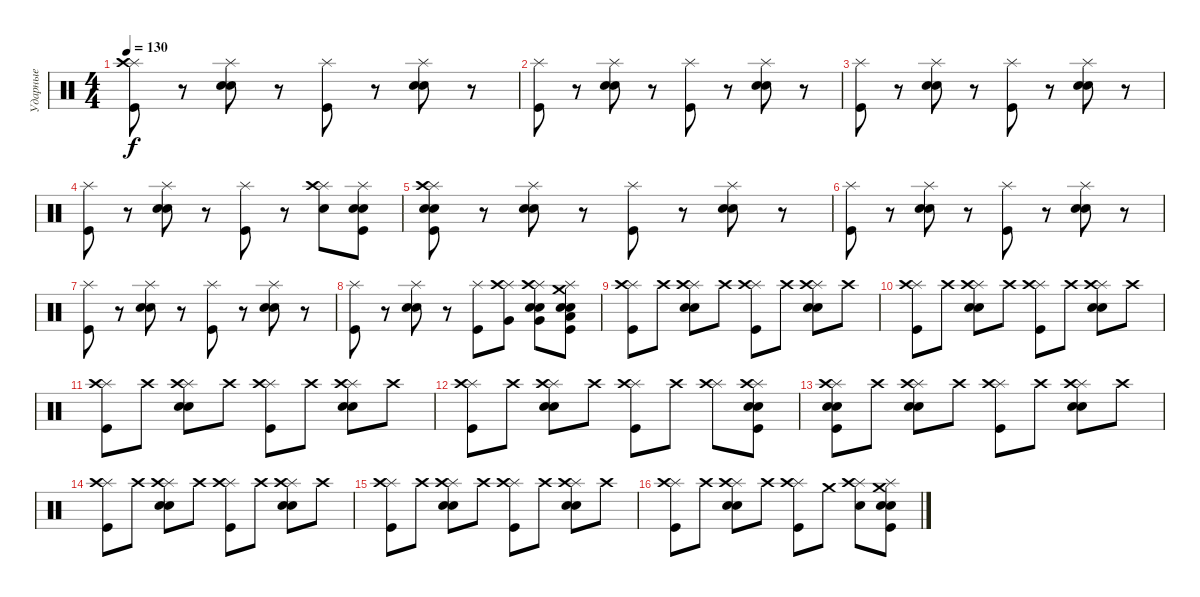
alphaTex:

\track ("Ударные" "Ударные") {instrument percussion}
\staff {score}
\articulation defaults
\ts (4 4)
\tempo 130
\clef neutral
\ks c
("Splash (hit)" "Crash high (hit)" "Kick (hit)").8{dy f} r.8 ("Splash (hit)" "Electric Snare (hit)" "Electric Snare (hit)").8 r.8 ("Splash (hit)" "Kick (hit)").8 r.8 ("Splash (hit)" "Electric Snare (hit)" "Electric Snare (hit)").8 r.8 |
("Splash (hit)" "Kick (hit)").8 r.8 ("Splash (hit)" "Electric Snare (hit)" "Electric Snare (hit)").8 r.8 ("Splash (hit)" "Kick (hit)").8 r.8 ("Splash (hit)" "Electric Snare (hit)" "Electric Snare (hit)").8 r.8 |
("Splash (hit)" "Kick (hit)").8 r.8 ("Splash (hit)" "Electric Snare (hit)" "Electric Snare (hit)").8 r.8 ("Splash (hit)" "Kick (hit)").8 r.8 ("Splash (hit)" "Electric Snare (hit)" "Electric Snare (hit)").8 r.8 |
("Splash (hit)" "Kick (hit)").8 r.8 ("Splash (hit)" "Electric Snare (hit)" "Electric Snare (hit)").8 r.8 ("Splash (hit)" "Kick (hit)").8 r.8 ("Splash (hit)" "Crash high (hit)" "Electric Snare (hit)").8 ("Splash (hit)" "Electric Snare (hit)" "Electric Snare (hit)" "Kick (hit)").8 |
("Splash (hit)" "Crash high (hit)" "Electric Snare (hit)" "Electric Snare (hit)" "Kick (hit)").8 r.8 ("Splash (hit)" "Electric Snare (hit)" "Electric Snare (hit)").8 r.8 ("Splash (hit)" "Kick (hit)").8 r.8 ("Splash (hit)" "Electric Snare (hit)" "Electric Snare (hit)").8 r.8 |
("Splash (hit)" "Kick (hit)").8 r.8 ("Splash (hit)" "Electric Snare (hit)" "Electric Snare (hit)").8 r.8 ("Splash (hit)" "Kick (hit)").8 r.8 ("Splash (hit)" "Electric Snare (hit)" "Electric Snare (hit)").8 r.8 |
("Splash (hit)" "Kick (hit)").8 r.8 ("Splash (hit)" "Electric Snare (hit)" "Electric Snare (hit)").8 r.8 ("Splash (hit)" "Kick (hit)").8 r.8 ("Splash (hit)" "Electric Snare (hit)" "Electric Snare (hit)").8 r.8 |
("Splash (hit)" "Kick (hit)").8 r.8 ("Splash (hit)" "Electric Snare (hit)" "Electric Snare (hit)").8 r.8 ("Splash (hit)" "Kick (hit)").8 ("Splash (hit)" "Crash high (hit)" "Very Low Tom (hit)").8 ("Splash (hit)" "Crash high (hit)" "Electric Snare (hit)" "Electric Snare (hit)" "Very Low Tom (hit)").8 ("Splash (hit)" "Crash medium (hit)" "Electric Snare (hit)" "Electric Snare (hit)" "Low Floor Tom (hit)" "Kick (hit)").8 |
("Splash (hit)" "Crash high (hit)" "Kick (hit)").8 "Crash high (hit)".8 ("Splash (hit)" "Crash high (hit)" "Electric Snare (hit)" "Electric Snare (hit)").8 "Crash high (hit)".8 ("Splash (hit)" "Crash high (hit)" "Kick (hit)").8 "Crash high (hit)".8 ("Splash (hit)" "Crash high (hit)" "Electric Snare (hit)" "Electric Snare (hit)").8 "Crash high (hit)".8 |
("Splash (hit)" "Crash high (hit)" "Kick (hit)").8 "Crash high (hit)".8 ("Splash (hit)" "Crash high (hit)" "Electric Snare (hit)" "Electric Snare (hit)").8 "Crash high (hit)".8 ("Splash (hit)" "Crash high (hit)" "Kick (hit)").8 "Crash high (hit)".8 ("Splash (hit)" "Crash high (hit)" "Electric Snare (hit)" "Electric Snare (hit)").8 "Crash high (hit)".8 |
("Splash (hit)" "Crash high (hit)" "Kick (hit)").8 "Crash high (hit)".8 ("Splash (hit)" "Crash high (hit)" "Electric Snare (hit)" "Electric Snare (hit)").8 "Crash high (hit)".8 ("Splash (hit)" "Crash high (hit)" "Kick (hit)").8 "Crash high (hit)".8 ("Splash (hit)" "Crash high (hit)" "Electric Snare (hit)" "Electric Snare (hit)").8 "Crash high (hit)".8 |
("Splash (hit)" "Crash high (hit)" "Kick (hit)").8 "Crash high (hit)".8 ("Splash (hit)" "Crash high (hit)" "Electric Snare (hit)" "Electric Snare (hit)").8 "Crash high (hit)".8 ("Splash (hit)" "Crash high (hit)" "Kick (hit)").8 "Crash high (hit)".8 ("Splash (hit)" "Crash high (hit)").8 ("Splash (hit)" "Crash high (hit)" "Electric Snare (hit)" "Electric Snare (hit)" "Kick (hit)").8 |
("Splash (hit)" "Crash high (hit)" "Electric Snare (hit)" "Electric Snare (hit)" "Kick (hit)").8 "Crash high (hit)".8 ("Splash (hit)" "Crash high (hit)" "Electric Snare (hit)" "Electric Snare (hit)").8 "Crash high (hit)".8 ("Splash (hit)" "Crash high (hit)" "Kick (hit)").8 "Crash high (hit)".8 ("Splash (hit)" "Crash high (hit)" "Electric Snare (hit)" "Electric Snare (hit)").8 "Crash high (hit)".8 |
("Splash (hit)" "Crash high (hit)" "Kick (hit)").8 "Crash high (hit)".8 ("Splash (hit)" "Crash high (hit)" "Electric Snare (hit)" "Electric Snare (hit)").8 "Crash high (hit)".8 ("Splash (hit)" "Crash high (hit)" "Kick (hit)").8 "Crash high (hit)".8 ("Splash (hit)" "Crash high (hit)" "Electric Snare (hit)" "Electric Snare (hit)").8 "Crash high (hit)".8 |
("Splash (hit)" "Crash high (hit)" "Kick (hit)").8 "Crash high (hit)".8 ("Splash (hit)" "Crash high (hit)" "Electric Snare (hit)" "Electric Snare (hit)").8 "Crash high (hit)".8 ("Splash (hit)" "Crash high (hit)" "Kick (hit)").8 "Crash high (hit)".8 ("Splash (hit)" "Crash high (hit)" "Electric Snare (hit)" "Electric Snare (hit)").8 "Crash high (hit)".8 |
("Splash (hit)" "Crash high (hit)" "Kick (hit)").8 "Crash high (hit)".8 ("Splash (hit)" "Crash high (hit)" "Electric Snare (hit)" "Electric Snare (hit)").8 "Crash high (hit)".8 ("Splash (hit)" "Crash high (hit)" "Kick (hit)").8 "Crash medium (hit)".8 ("Splash (hit)" "Crash high (hit)" "Electric Snare (hit)").8 ("Splash (hit)" "Crash medium (hit)" "Electric Snare (hit)" "Electric Snare (hit)" "Kick (hit)").8
